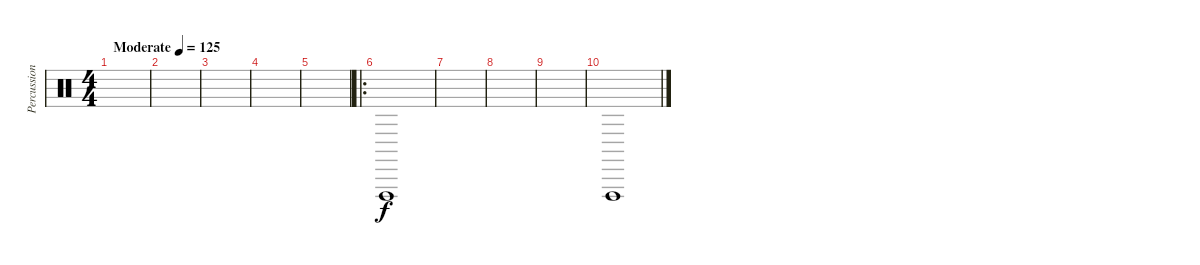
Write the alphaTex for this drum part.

\track ("Percussion" "Percussion") {instrument percussion}
\staff {score}
\articulation defaults
\ts (4 4)
\tempo (125 "Moderate")
\clef neutral
\ks c
|
|
|
|
|
\ro "Vibraslap (hit)".1
|
|
|
|
"Vibraslap (hit)".1
